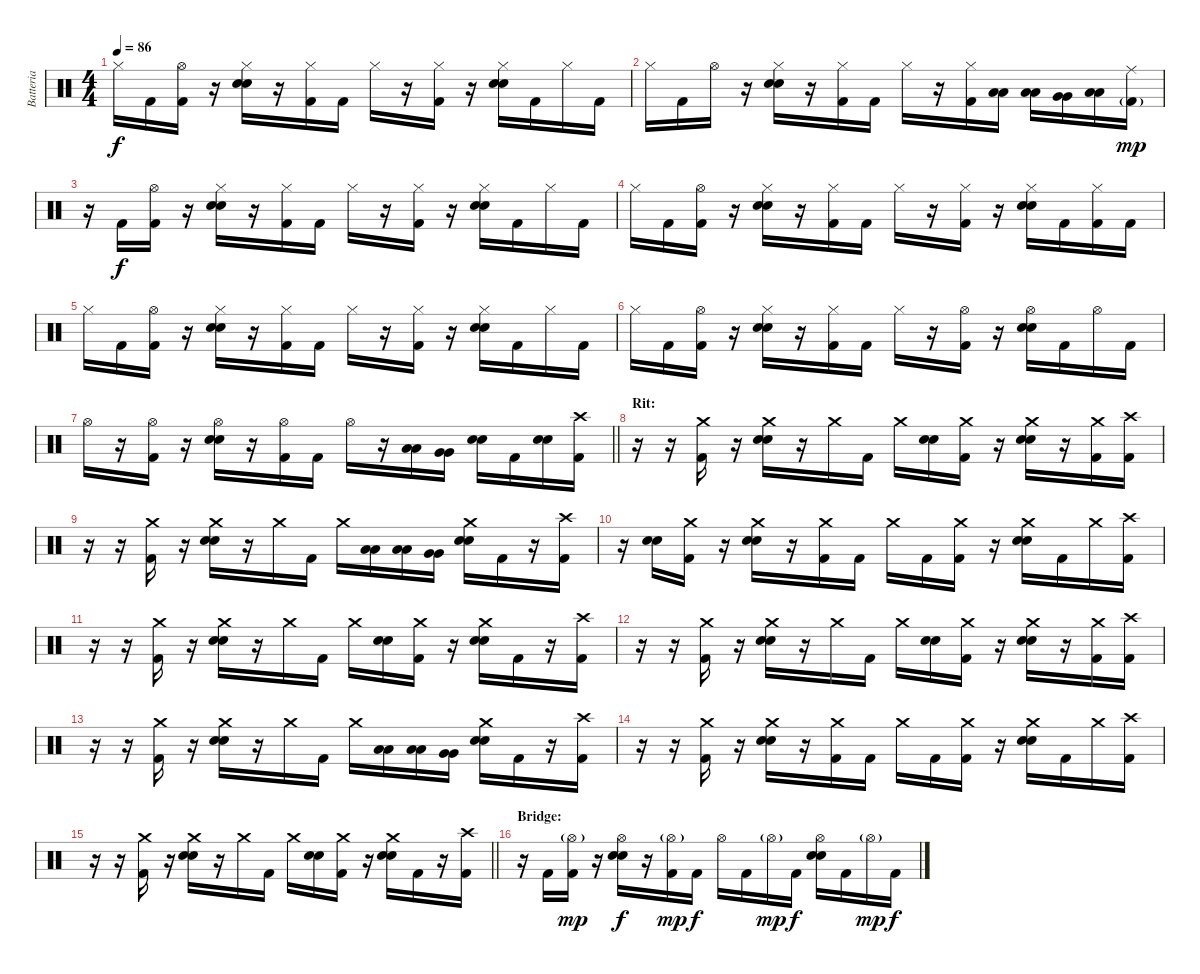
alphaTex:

\track ("Batteria" "Batteria") {instrument percussion}
\staff {score}
\articulation defaults
\ts (4 4)
\tempo 86
\clef neutral
\ks c "Hi-Hat (closed)".16{dy f} "Kick (hit) 2".16
("Kick (hit) 2" "Hi-Hat (open)").16 r.16 ("Snare (hit) 2" "Snare (hit) 2" "Hi-Hat (closed)").16 r.16 ("Kick (hit) 2" "Hi-Hat (closed)").16 "Kick (hit) 2".16 "Hi-Hat (closed)".16 r.16 ("Kick (hit) 2" "Hi-Hat (closed)").16 r.16 ("Snare (hit) 2" "Snare (hit) 2" "Hi-Hat (closed)").16 "Kick (hit) 2".16 "Hi-Hat (closed)".16 "Kick (hit) 2".16 |
"Hi-Hat (closed)".16 "Kick (hit) 2".16 "Hi-Hat (open)".16 r.16 ("Snare (hit) 2" "Snare (hit) 2" "Hi-Hat (closed)").16 r.16 ("Kick (hit) 2" "Hi-Hat (closed)").16 "Kick (hit) 2".16 "Hi-Hat (closed)".16 r.16 ("Kick (hit) 2" "Hi-Hat (closed)").16 ("Low Tom (hit)" "Low Tom (hit)").16 ("Low Tom (hit)" "Low Tom (hit)").16 ("Very Low Tom (hit)" "Very Low Tom (hit)").16 ("Low Floor Tom (hit)" "Low Floor Tom (hit)").16 ("Kick (hit) 2"{g} "Ride (middle)").16{dy mp} |
r.16 "Kick (hit) 2".16{dy f} ("Kick (hit) 2" "Hi-Hat (open)").16 r.16 ("Snare (hit) 2" "Snare (hit) 2" "Hi-Hat (closed)").16 r.16 ("Kick (hit) 2" "Hi-Hat (closed)").16 "Kick (hit) 2".16 "Hi-Hat (closed)".16 r.16 ("Kick (hit) 2" "Hi-Hat (closed)").16 r.16 ("Snare (hit) 2" "Snare (hit) 2" "Hi-Hat (closed)").16 "Kick (hit) 2".16 "Hi-Hat (closed)".16 "Kick (hit) 2".16 |
"Hi-Hat (closed)".16 "Kick (hit) 2".16 ("Kick (hit) 2" "Hi-Hat (open)").16 r.16 ("Snare (hit) 2" "Snare (hit) 2" "Hi-Hat (closed)").16 r.16 ("Kick (hit) 2" "Hi-Hat (closed)").16 "Kick (hit) 2".16 "Hi-Hat (closed)".16 r.16 ("Kick (hit) 2" "Hi-Hat (closed)").16 r.16 ("Snare (hit) 2" "Snare (hit) 2" "Hi-Hat (closed)").16 "Kick (hit) 2".16 ("Kick (hit) 2" "Hi-Hat (closed)").16 "Kick (hit) 2".16 |
"Hi-Hat (closed)".16 "Kick (hit) 2".16 ("Kick (hit) 2" "Hi-Hat (open)").16 r.16 ("Snare (hit) 2" "Snare (hit) 2" "Hi-Hat (closed)").16 r.16 ("Kick (hit) 2" "Hi-Hat (closed)").16 "Kick (hit) 2".16 "Hi-Hat (closed)".16 r.16 ("Kick (hit) 2" "Hi-Hat (closed)").16 r.16 ("Snare (hit) 2" "Snare (hit) 2" "Hi-Hat (closed)").16 "Kick (hit) 2".16 "Hi-Hat (closed)".16 "Kick (hit) 2".16 |
"Hi-Hat (closed)".16 "Kick (hit) 2".16 ("Kick (hit) 2" "Hi-Hat (open)").16 r.16 ("Snare (hit) 2" "Snare (hit) 2" "Hi-Hat (closed)").16 r.16 ("Kick (hit) 2" "Hi-Hat (closed)").16 "Kick (hit) 2".16 "Hi-Hat (closed)".16 r.16 ("Kick (hit) 2" "Hi-Hat (open)").16 r.16 ("Snare (hit) 2" "Snare (hit) 2" "Hi-Hat (open)").16 "Kick (hit) 2".16 "Hi-Hat (open)".16 "Kick (hit) 2".16 |
\barLineRight lightlight "Hi-Hat (open)".16
r.16 ("Kick (hit) 2" "Hi-Hat (open)").16 r.16 ("Snare (hit) 2" "Snare (hit) 2" "Hi-Hat (open)").16 r.16 ("Kick (hit) 2" "Hi-Hat (open)").16 "Kick (hit) 2".16 "Hi-Hat (open)".16 r.16 ("Low Tom (hit)" "Low Tom (hit)").16 ("Very Low Tom (hit)" "Very Low Tom (hit)").16 ("Snare (hit) 2" "Snare (hit) 2").16 "Kick (hit) 2".16 ("Snare (hit) 2" "Snare (hit) 2").16 ("Kick (hit) 2" "Crash high (hit)").16 |
\section ("" "Rit:")
r.16 r.16 ("Kick (hit) 2" "Crash medium (hit)").16 r.16 ("Snare (hit) 2" "Snare (hit) 2" "Crash medium (hit)").16 r.16 "Crash medium (hit)".16 "Kick (hit) 2".16 "Crash medium (hit)".16 ("Snare (hit) 2" "Snare (hit) 2").16 ("Kick (hit) 2" "Crash medium (hit)").16 r.16 ("Snare (hit) 2" "Snare (hit) 2" "Crash medium (hit)").16 r.16 ("Kick (hit) 2" "Crash medium (hit)").16 ("Kick (hit) 2" "Crash high (hit)").16 |
r.16 r.16 ("Kick (hit) 2" "Crash medium (hit)").16 r.16 ("Snare (hit) 2" "Snare (hit) 2" "Crash medium (hit)").16 r.16 "Crash medium (hit)".16 "Kick (hit) 2".16 "Crash medium (hit)".16 ("Low Tom (hit)" "Low Tom (hit)").16 ("Low Tom (hit)" "Low Tom (hit)").16 ("Very Low Tom (hit)" "Very Low Tom (hit)").16 ("Snare (hit) 2" "Snare (hit) 2" "Crash medium (hit)").16 "Kick (hit) 2".16 r.16 ("Kick (hit) 2" "Crash high (hit)").16 |
r.16 ("Snare (hit) 2" "Snare (hit) 2").16 ("Kick (hit) 2" "Crash medium (hit)").16 r.16 ("Snare (hit) 2" "Snare (hit) 2" "Crash medium (hit)").16 r.16 ("Kick (hit) 2" "Crash medium (hit)").16 "Kick (hit) 2".16 "Crash medium (hit)".16 "Kick (hit) 2".16 ("Kick (hit) 2" "Crash medium (hit)").16 r.16 ("Snare (hit) 2" "Snare (hit) 2" "Crash medium (hit)").16 "Kick (hit) 2".16 "Crash medium (hit)".16 ("Kick (hit) 2" "Crash high (hit)").16 |
r.16 r.16 ("Kick (hit) 2" "Crash medium (hit)").16 r.16 ("Snare (hit) 2" "Snare (hit) 2" "Crash medium (hit)").16 r.16 "Crash medium (hit)".16 "Kick (hit) 2".16 "Crash medium (hit)".16 ("Snare (hit) 2" "Snare (hit) 2").16 ("Kick (hit) 2" "Crash medium (hit)").16 r.16 ("Snare (hit) 2" "Snare (hit) 2" "Crash medium (hit)").16 "Kick (hit) 2".16 r.16 ("Kick (hit) 2" "Crash high (hit)").16 |
r.16 r.16 ("Kick (hit) 2" "Crash medium (hit)").16 r.16 ("Snare (hit) 2" "Snare (hit) 2" "Crash medium (hit)").16 r.16 "Crash medium (hit)".16 "Kick (hit) 2".16 "Crash medium (hit)".16 ("Snare (hit) 2" "Snare (hit) 2").16 ("Kick (hit) 2" "Crash medium (hit)").16 r.16 ("Snare (hit) 2" "Snare (hit) 2" "Crash medium (hit)").16 r.16 ("Kick (hit) 2" "Crash medium (hit)").16 ("Kick (hit) 2" "Crash high (hit)").16 |
r.16 r.16 ("Kick (hit) 2" "Crash medium (hit)").16 r.16 ("Snare (hit) 2" "Snare (hit) 2" "Crash medium (hit)").16 r.16 "Crash medium (hit)".16 "Kick (hit) 2".16 "Crash medium (hit)".16 ("Low Tom (hit)" "Low Tom (hit)").16 ("Low Tom (hit)" "Low Tom (hit)").16 ("Very Low Tom (hit)" "Very Low Tom (hit)").16 ("Snare (hit) 2" "Snare (hit) 2" "Crash medium (hit)").16 "Kick (hit) 2".16 r.16 ("Kick (hit) 2" "Crash high (hit)").16 |
r.16 r.16 ("Kick (hit) 2" "Crash medium (hit)").16 r.16 ("Snare (hit) 2" "Snare (hit) 2" "Crash medium (hit)").16 r.16 ("Kick (hit) 2" "Crash medium (hit)").16 "Kick (hit) 2".16 "Crash medium (hit)".16 "Kick (hit) 2".16 ("Kick (hit) 2" "Crash medium (hit)").16 r.16 ("Snare (hit) 2" "Snare (hit) 2" "Crash medium (hit)").16 "Kick (hit) 2".16 "Crash medium (hit)".16 ("Kick (hit) 2" "Crash high (hit)").16 |
\barLineRight lightlight
r.16 r.16 ("Kick (hit) 2" "Crash medium (hit)").16 r.16 ("Snare (hit) 2" "Snare (hit) 2" "Crash medium (hit)").16 r.16 "Crash medium (hit)".16 "Kick (hit) 2".16 "Crash medium (hit)".16 ("Snare (hit) 2" "Snare (hit) 2").16 ("Kick (hit) 2" "Crash medium (hit)").16 r.16 ("Snare (hit) 2" "Snare (hit) 2" "Crash medium (hit)").16 "Kick (hit) 2".16 r.16 ("Kick (hit) 2" "Crash high (hit)").16 |
\section ("" "Bridge:")
r.16 "Kick (hit) 2".16 ("Kick (hit) 2" "Hi-Hat (open)"{g}).16{dy mp} r.16 ("Snare (hit) 2" "Snare (hit) 2" "Hi-Hat (open)").16{dy f} r.16 ("Kick (hit) 2" "Hi-Hat (open)"{g}).16{dy mp} "Kick (hit) 2".16{dy f} "Hi-Hat (open)".16 "Kick (hit) 2".16 "Hi-Hat (open)"{g}.16{dy mp} "Kick (hit) 2".16{dy f} ("Snare (hit) 2" "Snare (hit) 2" "Hi-Hat (open)").16 "Kick (hit) 2".16 "Hi-Hat (open)"{g}.16{dy mp} "Kick (hit) 2".16{dy f}
